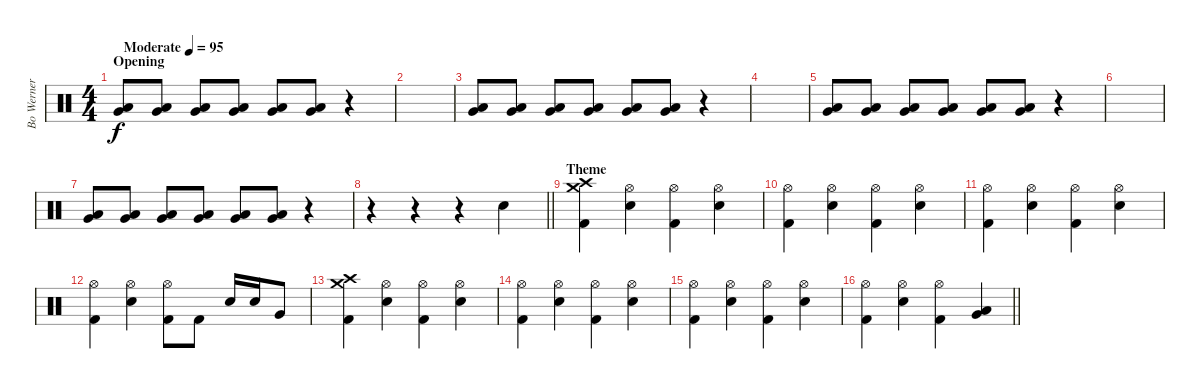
\track ("Bo Werner" "Bo Werner") {instrument percussion}
\staff {score}
\articulation defaults
\ts (4 4)
\section ("" "Opening")
\tempo (95 "Moderate")
\clef neutral
\ks c
("Very Low Tom (hit)" "Low Tom (hit)").8{dy f} ("Very Low Tom (hit)" "Low Tom (hit)").8 ("Very Low Tom (hit)" "Low Tom (hit)").8 ("Very Low Tom (hit)" "Low Tom (hit)").8 ("Very Low Tom (hit)" "Low Tom (hit)").8 ("Very Low Tom (hit)" "Low Tom (hit)").8 r.4 |
|
("Very Low Tom (hit)" "Low Tom (hit)").8 ("Very Low Tom (hit)" "Low Tom (hit)").8 ("Very Low Tom (hit)" "Low Tom (hit)").8 ("Very Low Tom (hit)" "Low Tom (hit)").8 ("Very Low Tom (hit)" "Low Tom (hit)").8 ("Very Low Tom (hit)" "Low Tom (hit)").8 r.4 |
|
("Very Low Tom (hit)" "Low Tom (hit)").8 ("Very Low Tom (hit)" "Low Tom (hit)").8 ("Very Low Tom (hit)" "Low Tom (hit)").8 ("Very Low Tom (hit)" "Low Tom (hit)").8 ("Very Low Tom (hit)" "Low Tom (hit)").8 ("Very Low Tom (hit)" "Low Tom (hit)").8 r.4 |
|
("Very Low Tom (hit)" "Low Tom (hit)").8 ("Very Low Tom (hit)" "Low Tom (hit)").8 ("Very Low Tom (hit)" "Low Tom (hit)").8 ("Very Low Tom (hit)" "Low Tom (hit)").8 ("Very Low Tom (hit)" "Low Tom (hit)").8 ("Very Low Tom (hit)" "Low Tom (hit)").8 r.4 |
\barLineRight lightlight
r.4 r.4 r.4 "Snare (hit) 2".4 |
\section ("" "Theme")
("Crash medium (hit)" "Crash high (hit)" "Kick (hit) 2").4 ("Hi-Hat (open)" "Snare (hit) 2").4 ("Hi-Hat (open)" "Kick (hit) 2").4 ("Hi-Hat (open)" "Snare (hit) 2").4 |
("Hi-Hat (open)" "Kick (hit) 2").4 ("Hi-Hat (open)" "Snare (hit) 2").4 ("Hi-Hat (open)" "Kick (hit) 2").4 ("Hi-Hat (open)" "Snare (hit) 2").4 |
("Hi-Hat (open)" "Kick (hit) 2").4 ("Hi-Hat (open)" "Snare (hit) 2").4 ("Hi-Hat (open)" "Kick (hit) 2").4 ("Hi-Hat (open)" "Snare (hit) 2").4 |
("Hi-Hat (open)" "Kick (hit) 2").4 ("Hi-Hat (open)" "Snare (hit) 2").4 ("Hi-Hat (open)" "Kick (hit) 2").8 "Kick (hit) 2".8 "Snare (hit) 2".16 "Snare (hit) 2".16 "Very Low Tom (hit)".8 |
("Crash high (hit)" "Crash medium (hit)" "Kick (hit) 2").4 ("Hi-Hat (open)" "Snare (hit) 2").4 ("Hi-Hat (open)" "Kick (hit) 2").4 ("Hi-Hat (open)" "Snare (hit) 2").4 |
("Hi-Hat (open)" "Kick (hit) 2").4 ("Hi-Hat (open)" "Snare (hit) 2").4 ("Hi-Hat (open)" "Kick (hit) 2").4 ("Hi-Hat (open)" "Snare (hit) 2").4 |
("Hi-Hat (open)" "Kick (hit) 2").4 ("Hi-Hat (open)" "Snare (hit) 2").4 ("Hi-Hat (open)" "Kick (hit) 2").4 ("Hi-Hat (open)" "Snare (hit) 2").4 |
\barLineRight lightlight
("Hi-Hat (open)" "Kick (hit) 2").4 ("Hi-Hat (open)" "Snare (hit) 2").4 ("Hi-Hat (open)" "Kick (hit) 2").4 ("Low Tom (hit)" "Very Low Tom (hit)").4
